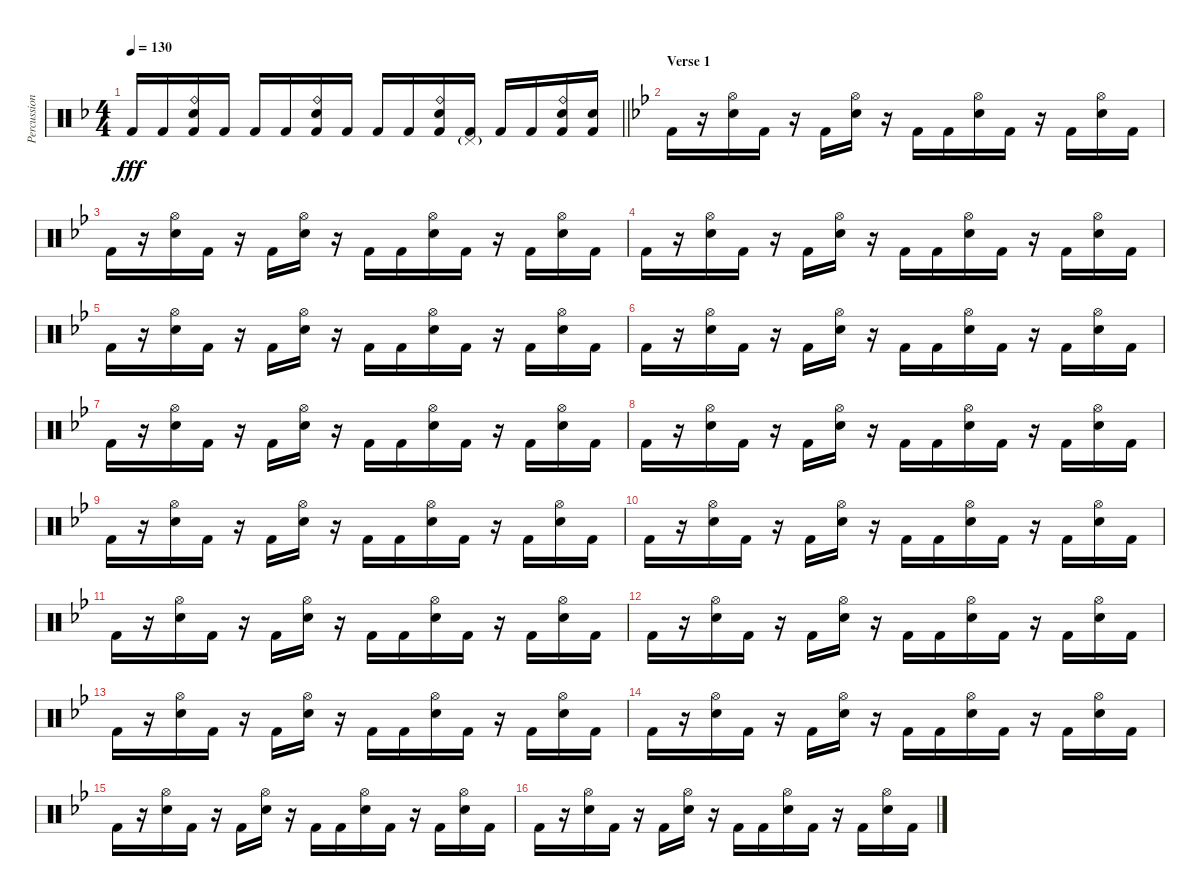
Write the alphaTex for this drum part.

\track ("Percussion" "Percussion") {instrument percussion}
\staff {score}
\articulation defaults
\ts (4 4)
\tempo 130
\clef neutral
\barLineRight lightlight
\ks dminor "Kick (hit) 2".16{dy fff} "Kick (hit) 2".16
("Ride (bell)" "Electric Snare (hit)" "Kick (hit) 2").16 "Kick (hit) 2".16 "Kick (hit) 2".16 "Kick (hit) 2".16 ("Ride (bell)" "Electric Snare (hit)" "Kick (hit) 2").16 "Kick (hit) 2".16 "Kick (hit) 2".16 "Kick (hit) 2".16 ("Ride (bell)" "Electric Snare (hit)" "Kick (hit) 2").16 ("Pedal Hi-Hat (hit)"{g} "Kick (hit) 2").16 "Kick (hit) 2".16 "Kick (hit) 2".16 ("Ride (bell)" "Electric Snare (hit)" "Kick (hit) 2").16 ("Electric Snare (hit)" "Kick (hit) 2").16 |
\section ("" "Verse 1")
\ks gminor "Kick (hit) 2".16
r.16 ("Hi-Hat (open)" "Electric Snare (hit)").16 "Kick (hit) 2".16 r.16 "Kick (hit) 2".16 ("Hi-Hat (open)" "Electric Snare (hit)").16 r.16 "Kick (hit) 2".16 "Kick (hit) 2".16 ("Hi-Hat (open)" "Electric Snare (hit)").16 "Kick (hit) 2".16 r.16 "Kick (hit) 2".16 ("Hi-Hat (open)" "Electric Snare (hit)").16 "Kick (hit) 2".16 |
"Kick (hit) 2".16 r.16 ("Hi-Hat (open)" "Electric Snare (hit)").16 "Kick (hit) 2".16 r.16 "Kick (hit) 2".16 ("Hi-Hat (open)" "Electric Snare (hit)").16 r.16 "Kick (hit) 2".16 "Kick (hit) 2".16 ("Hi-Hat (open)" "Electric Snare (hit)").16 "Kick (hit) 2".16 r.16 "Kick (hit) 2".16 ("Hi-Hat (open)" "Electric Snare (hit)").16 "Kick (hit) 2".16 |
"Kick (hit) 2".16 r.16 ("Hi-Hat (open)" "Electric Snare (hit)").16 "Kick (hit) 2".16 r.16 "Kick (hit) 2".16 ("Hi-Hat (open)" "Electric Snare (hit)").16 r.16 "Kick (hit) 2".16 "Kick (hit) 2".16 ("Hi-Hat (open)" "Electric Snare (hit)").16 "Kick (hit) 2".16 r.16 "Kick (hit) 2".16 ("Hi-Hat (open)" "Electric Snare (hit)").16 "Kick (hit) 2".16 |
"Kick (hit) 2".16 r.16 ("Hi-Hat (open)" "Electric Snare (hit)").16 "Kick (hit) 2".16 r.16 "Kick (hit) 2".16 ("Hi-Hat (open)" "Electric Snare (hit)").16 r.16 "Kick (hit) 2".16 "Kick (hit) 2".16 ("Hi-Hat (open)" "Electric Snare (hit)").16 "Kick (hit) 2".16 r.16 "Kick (hit) 2".16 ("Hi-Hat (open)" "Electric Snare (hit)").16 "Kick (hit) 2".16 |
"Kick (hit) 2".16 r.16 ("Hi-Hat (open)" "Electric Snare (hit)").16 "Kick (hit) 2".16 r.16 "Kick (hit) 2".16 ("Hi-Hat (open)" "Electric Snare (hit)").16 r.16 "Kick (hit) 2".16 "Kick (hit) 2".16 ("Hi-Hat (open)" "Electric Snare (hit)").16 "Kick (hit) 2".16 r.16 "Kick (hit) 2".16 ("Hi-Hat (open)" "Electric Snare (hit)").16 "Kick (hit) 2".16 |
"Kick (hit) 2".16 r.16 ("Hi-Hat (open)" "Electric Snare (hit)").16 "Kick (hit) 2".16 r.16 "Kick (hit) 2".16 ("Hi-Hat (open)" "Electric Snare (hit)").16 r.16 "Kick (hit) 2".16 "Kick (hit) 2".16 ("Hi-Hat (open)" "Electric Snare (hit)").16 "Kick (hit) 2".16 r.16 "Kick (hit) 2".16 ("Hi-Hat (open)" "Electric Snare (hit)").16 "Kick (hit) 2".16 |
"Kick (hit) 2".16 r.16 ("Hi-Hat (open)" "Electric Snare (hit)").16 "Kick (hit) 2".16 r.16 "Kick (hit) 2".16 ("Hi-Hat (open)" "Electric Snare (hit)").16 r.16 "Kick (hit) 2".16 "Kick (hit) 2".16 ("Hi-Hat (open)" "Electric Snare (hit)").16 "Kick (hit) 2".16 r.16 "Kick (hit) 2".16 ("Hi-Hat (open)" "Electric Snare (hit)").16 "Kick (hit) 2".16 |
"Kick (hit) 2".16 r.16 ("Hi-Hat (open)" "Electric Snare (hit)").16 "Kick (hit) 2".16 r.16 "Kick (hit) 2".16 ("Hi-Hat (open)" "Electric Snare (hit)").16 r.16 "Kick (hit) 2".16 "Kick (hit) 2".16 ("Hi-Hat (open)" "Electric Snare (hit)").16 "Kick (hit) 2".16 r.16 "Kick (hit) 2".16 ("Hi-Hat (open)" "Electric Snare (hit)").16 "Kick (hit) 2".16 |
"Kick (hit) 2".16 r.16 ("Hi-Hat (open)" "Electric Snare (hit)").16 "Kick (hit) 2".16 r.16 "Kick (hit) 2".16 ("Hi-Hat (open)" "Electric Snare (hit)").16 r.16 "Kick (hit) 2".16 "Kick (hit) 2".16 ("Hi-Hat (open)" "Electric Snare (hit)").16 "Kick (hit) 2".16 r.16 "Kick (hit) 2".16 ("Hi-Hat (open)" "Electric Snare (hit)").16 "Kick (hit) 2".16 |
"Kick (hit) 2".16 r.16 ("Hi-Hat (open)" "Electric Snare (hit)").16 "Kick (hit) 2".16 r.16 "Kick (hit) 2".16 ("Hi-Hat (open)" "Electric Snare (hit)").16 r.16 "Kick (hit) 2".16 "Kick (hit) 2".16 ("Hi-Hat (open)" "Electric Snare (hit)").16 "Kick (hit) 2".16 r.16 "Kick (hit) 2".16 ("Hi-Hat (open)" "Electric Snare (hit)").16 "Kick (hit) 2".16 |
"Kick (hit) 2".16 r.16 ("Hi-Hat (open)" "Electric Snare (hit)").16 "Kick (hit) 2".16 r.16 "Kick (hit) 2".16 ("Hi-Hat (open)" "Electric Snare (hit)").16 r.16 "Kick (hit) 2".16 "Kick (hit) 2".16 ("Hi-Hat (open)" "Electric Snare (hit)").16 "Kick (hit) 2".16 r.16 "Kick (hit) 2".16 ("Hi-Hat (open)" "Electric Snare (hit)").16 "Kick (hit) 2".16 |
"Kick (hit) 2".16 r.16 ("Hi-Hat (open)" "Electric Snare (hit)").16 "Kick (hit) 2".16 r.16 "Kick (hit) 2".16 ("Hi-Hat (open)" "Electric Snare (hit)").16 r.16 "Kick (hit) 2".16 "Kick (hit) 2".16 ("Hi-Hat (open)" "Electric Snare (hit)").16 "Kick (hit) 2".16 r.16 "Kick (hit) 2".16 ("Hi-Hat (open)" "Electric Snare (hit)").16 "Kick (hit) 2".16 |
"Kick (hit) 2".16 r.16 ("Hi-Hat (open)" "Electric Snare (hit)").16 "Kick (hit) 2".16 r.16 "Kick (hit) 2".16 ("Hi-Hat (open)" "Electric Snare (hit)").16 r.16 "Kick (hit) 2".16 "Kick (hit) 2".16 ("Hi-Hat (open)" "Electric Snare (hit)").16 "Kick (hit) 2".16 r.16 "Kick (hit) 2".16 ("Hi-Hat (open)" "Electric Snare (hit)").16 "Kick (hit) 2".16 |
"Kick (hit) 2".16 r.16 ("Hi-Hat (open)" "Electric Snare (hit)").16 "Kick (hit) 2".16 r.16 "Kick (hit) 2".16 ("Hi-Hat (open)" "Electric Snare (hit)").16 r.16 "Kick (hit) 2".16 "Kick (hit) 2".16 ("Hi-Hat (open)" "Electric Snare (hit)").16 "Kick (hit) 2".16 r.16 "Kick (hit) 2".16 ("Hi-Hat (open)" "Electric Snare (hit)").16 "Kick (hit) 2".16 |
"Kick (hit) 2".16 r.16 ("Hi-Hat (open)" "Electric Snare (hit)").16 "Kick (hit) 2".16 r.16 "Kick (hit) 2".16 ("Hi-Hat (open)" "Electric Snare (hit)").16 r.16 "Kick (hit) 2".16 "Kick (hit) 2".16 ("Hi-Hat (open)" "Electric Snare (hit)").16 "Kick (hit) 2".16 r.16 "Kick (hit) 2".16 ("Hi-Hat (open)" "Electric Snare (hit)").16 "Kick (hit) 2".16
